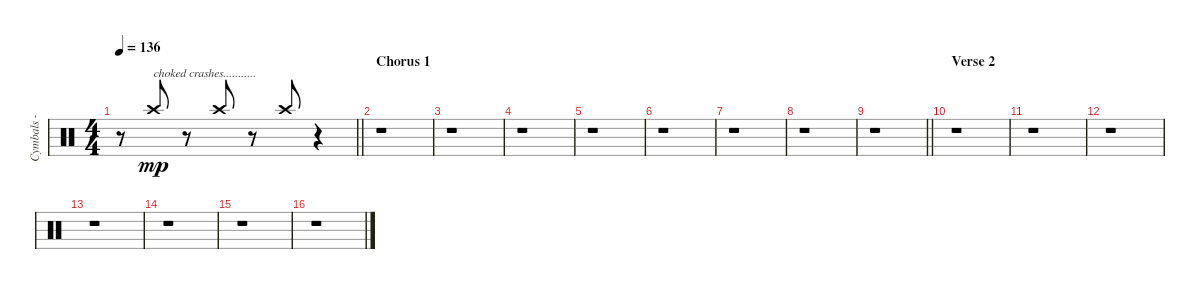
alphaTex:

\track ("Cymbals - crash - right" "Cymbals - ") {instrument percussion}
\staff {score}
\articulation defaults
\ts (4 4)
\tempo 136
\clef neutral
\barLineRight lightlight
\ks c
r.8{dy f} "Crash high (hit)".8{txt "choked crashes..........." dy mp beam Up} r.8 "Crash high (hit)".8{beam Up} r.8 "Crash high (hit)".8{beam Up} r.4 |
\section ("" "Chorus 1")
r.1 |
r.1 |
r.1 |
r.1 |
r.1 |
r.1 |
r.1 |
\barLineRight lightlight
r.1 |
\section ("" "Verse 2")
r.1 |
r.1 |
r.1 |
r.1 |
r.1 |
r.1 |
r.1
